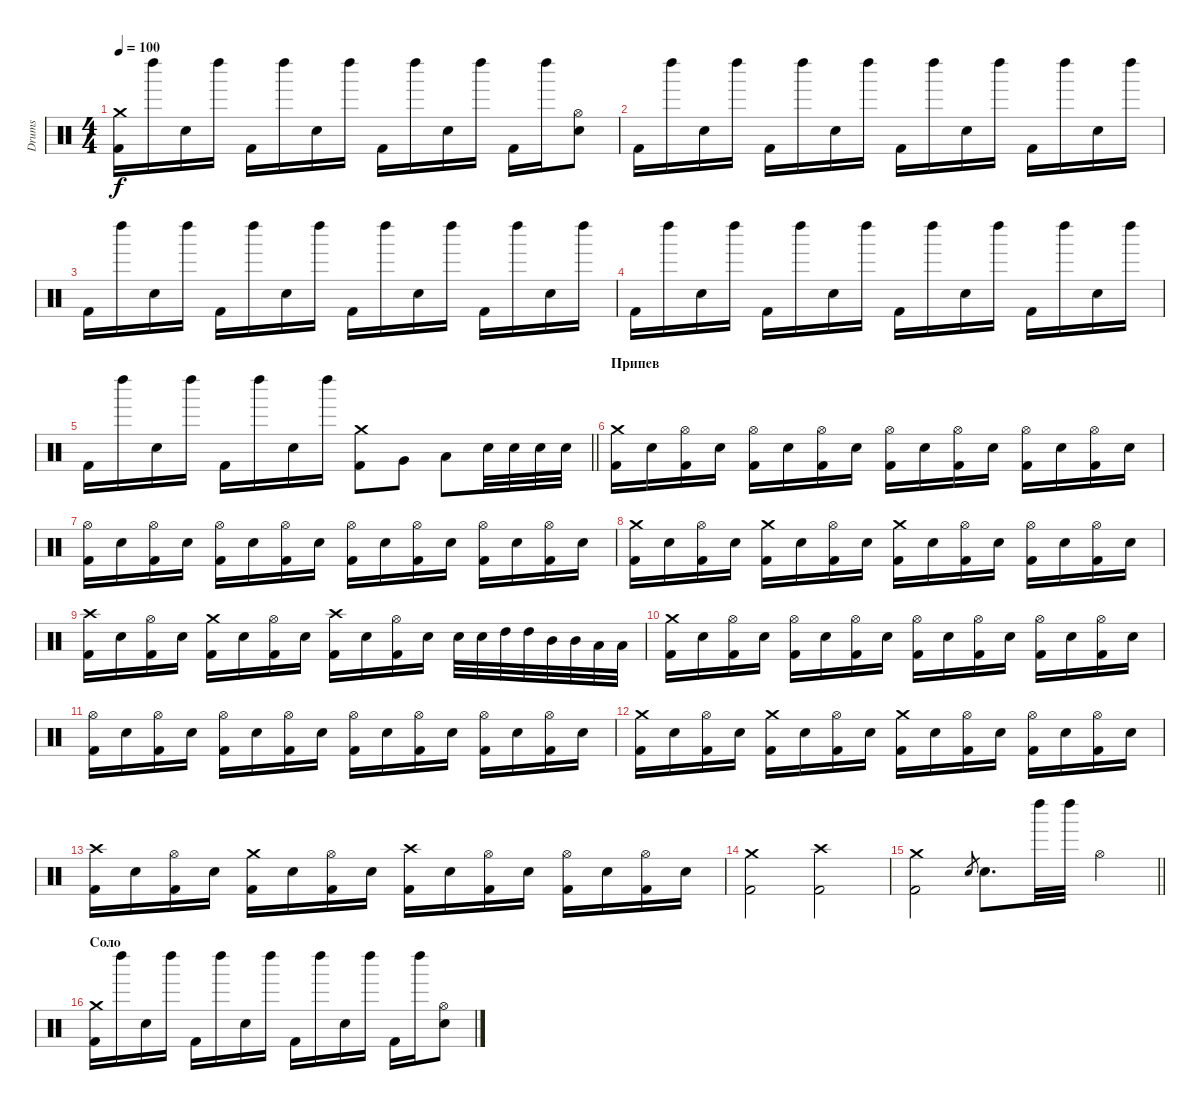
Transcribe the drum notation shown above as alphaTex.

\track ("Drums" "Drums") {instrument percussion}
\staff {score}
\articulation defaults
\ts (4 4)
\tempo 100
\clef neutral
\ks c
("Crash medium (hit)" "Kick (hit) 2").16{dy f} "Left Maraca (hit)".16 "Snare (hit) 2".16 "Left Maraca (hit)".16 "Kick (hit) 2".16 "Left Maraca (hit)".16 "Snare (hit) 2".16 "Left Maraca (hit)".16 "Kick (hit) 2".16 "Left Maraca (hit)".16 "Snare (hit) 2".16 "Left Maraca (hit)".16 "Kick (hit) 2".16 "Left Maraca (hit)".16 ("Hi-Hat (open)" "Snare (hit) 2").8 |
"Kick (hit) 2".16 "Left Maraca (hit)".16 "Snare (hit) 2".16 "Left Maraca (hit)".16 "Kick (hit) 2".16 "Left Maraca (hit)".16 "Snare (hit) 2".16 "Left Maraca (hit)".16 "Kick (hit) 2".16 "Left Maraca (hit)".16 "Snare (hit) 2".16 "Left Maraca (hit)".16 "Kick (hit) 2".16 "Left Maraca (hit)".16 "Snare (hit) 2".16 "Left Maraca (hit)".16 |
"Kick (hit) 2".16 "Left Maraca (hit)".16 "Snare (hit) 2".16 "Left Maraca (hit)".16 "Kick (hit) 2".16 "Left Maraca (hit)".16 "Snare (hit) 2".16 "Left Maraca (hit)".16 "Kick (hit) 2".16 "Left Maraca (hit)".16 "Snare (hit) 2".16 "Left Maraca (hit)".16 "Kick (hit) 2".16 "Left Maraca (hit)".16 "Snare (hit) 2".16 "Left Maraca (hit)".16 |
"Kick (hit) 2".16 "Left Maraca (hit)".16 "Snare (hit) 2".16 "Left Maraca (hit)".16 "Kick (hit) 2".16 "Left Maraca (hit)".16 "Snare (hit) 2".16 "Left Maraca (hit)".16 "Kick (hit) 2".16 "Left Maraca (hit)".16 "Snare (hit) 2".16 "Left Maraca (hit)".16 "Kick (hit) 2".16 "Left Maraca (hit)".16 "Snare (hit) 2".16 "Left Maraca (hit)".16 |
\barLineRight lightlight "Kick (hit) 2".16 "Left Maraca (hit)".16 "Snare (hit) 2".16 "Left Maraca (hit)".16 "Kick (hit) 2".16 "Left Maraca (hit)".16 "Snare (hit) 2".16 "Left Maraca (hit)".16
("Crash medium (hit)" "Kick (hit) 2").8 "Very Low Tom (hit)".8 "Low Tom (hit)".8 "Snare (hit) 2".32 "Snare (hit) 2".32 "Snare (hit) 2".32 "Snare (hit) 2".32 |
\section ("" "Припев")
("Crash medium (hit)" "Kick (hit) 2").16 "Snare (hit) 2".16 ("Hi-Hat (open)" "Kick (hit) 2").16 "Snare (hit) 2".16 ("Hi-Hat (open)" "Kick (hit) 2").16 "Snare (hit) 2".16 ("Hi-Hat (open)" "Kick (hit) 2").16 "Snare (hit) 2".16 ("Hi-Hat (open)" "Kick (hit) 2").16 "Snare (hit) 2".16 ("Hi-Hat (open)" "Kick (hit) 2").16 "Snare (hit) 2".16 ("Hi-Hat (open)" "Kick (hit) 2").16 "Snare (hit) 2".16 ("Hi-Hat (open)" "Kick (hit) 2").16 "Snare (hit) 2".16 |
("Hi-Hat (open)" "Kick (hit) 2").16 "Snare (hit) 2".16 ("Hi-Hat (open)" "Kick (hit) 2").16 "Snare (hit) 2".16 ("Hi-Hat (open)" "Kick (hit) 2").16 "Snare (hit) 2".16 ("Hi-Hat (open)" "Kick (hit) 2").16 "Snare (hit) 2".16 ("Hi-Hat (open)" "Kick (hit) 2").16 "Snare (hit) 2".16 ("Hi-Hat (open)" "Kick (hit) 2").16 "Snare (hit) 2".16 ("Hi-Hat (open)" "Kick (hit) 2").16 "Snare (hit) 2".16 ("Hi-Hat (open)" "Kick (hit) 2").16 "Snare (hit) 2".16 |
("Crash medium (hit)" "Kick (hit) 2").16 "Snare (hit) 2".16 ("Hi-Hat (open)" "Kick (hit) 2").16 "Snare (hit) 2".16 ("Crash medium (hit)" "Kick (hit) 2").16 "Snare (hit) 2".16 ("Hi-Hat (open)" "Kick (hit) 2").16 "Snare (hit) 2".16 ("Crash medium (hit)" "Kick (hit) 2").16 "Snare (hit) 2".16 ("Hi-Hat (open)" "Kick (hit) 2").16 "Snare (hit) 2".16 ("Hi-Hat (open)" "Kick (hit) 2").16 "Snare (hit) 2".16 ("Hi-Hat (open)" "Kick (hit) 2").16 "Snare (hit) 2".16 |
("Crash high (hit)" "Kick (hit) 2").16 "Snare (hit) 2".16 ("Hi-Hat (open)" "Kick (hit) 2").16 "Snare (hit) 2".16 ("Crash medium (hit)" "Kick (hit) 2").16 "Snare (hit) 2".16 ("Hi-Hat (open)" "Kick (hit) 2").16 "Snare (hit) 2".16 ("Crash high (hit)" "Kick (hit) 2").16 "Snare (hit) 2".16 ("Hi-Hat (open)" "Kick (hit) 2").16 "Snare (hit) 2".16 "Snare (hit) 2".32 "Snare (hit) 2".32 "High Tom (hit)".32 "High Tom (hit)".32 "Mid Tom (hit)".32 "Mid Tom (hit)".32 "Low Tom (hit)".32 "Low Tom (hit)".32 |
("Crash medium (hit)" "Kick (hit) 2").16 "Snare (hit) 2".16 ("Hi-Hat (open)" "Kick (hit) 2").16 "Snare (hit) 2".16 ("Hi-Hat (open)" "Kick (hit) 2").16 "Snare (hit) 2".16 ("Hi-Hat (open)" "Kick (hit) 2").16 "Snare (hit) 2".16 ("Hi-Hat (open)" "Kick (hit) 2").16 "Snare (hit) 2".16 ("Hi-Hat (open)" "Kick (hit) 2").16 "Snare (hit) 2".16 ("Hi-Hat (open)" "Kick (hit) 2").16 "Snare (hit) 2".16 ("Hi-Hat (open)" "Kick (hit) 2").16 "Snare (hit) 2".16 |
("Hi-Hat (open)" "Kick (hit) 2").16 "Snare (hit) 2".16 ("Hi-Hat (open)" "Kick (hit) 2").16 "Snare (hit) 2".16 ("Hi-Hat (open)" "Kick (hit) 2").16 "Snare (hit) 2".16 ("Hi-Hat (open)" "Kick (hit) 2").16 "Snare (hit) 2".16 ("Hi-Hat (open)" "Kick (hit) 2").16 "Snare (hit) 2".16 ("Hi-Hat (open)" "Kick (hit) 2").16 "Snare (hit) 2".16 ("Hi-Hat (open)" "Kick (hit) 2").16 "Snare (hit) 2".16 ("Hi-Hat (open)" "Kick (hit) 2").16 "Snare (hit) 2".16 |
("Crash medium (hit)" "Kick (hit) 2").16 "Snare (hit) 2".16 ("Hi-Hat (open)" "Kick (hit) 2").16 "Snare (hit) 2".16 ("Crash medium (hit)" "Kick (hit) 2").16 "Snare (hit) 2".16 ("Hi-Hat (open)" "Kick (hit) 2").16 "Snare (hit) 2".16 ("Crash medium (hit)" "Kick (hit) 2").16 "Snare (hit) 2".16 ("Hi-Hat (open)" "Kick (hit) 2").16 "Snare (hit) 2".16 ("Hi-Hat (open)" "Kick (hit) 2").16 "Snare (hit) 2".16 ("Hi-Hat (open)" "Kick (hit) 2").16 "Snare (hit) 2".16 |
("Crash high (hit)" "Kick (hit) 2").16 "Snare (hit) 2".16 ("Hi-Hat (open)" "Kick (hit) 2").16 "Snare (hit) 2".16 ("Crash medium (hit)" "Kick (hit) 2").16 "Snare (hit) 2".16 ("Hi-Hat (open)" "Kick (hit) 2").16 "Snare (hit) 2".16 ("Crash high (hit)" "Kick (hit) 2").16 "Snare (hit) 2".16 ("Hi-Hat (open)" "Kick (hit) 2").16 "Snare (hit) 2".16 ("Hi-Hat (open)" "Kick (hit) 2").16 "Snare (hit) 2".16 ("Hi-Hat (open)" "Kick (hit) 2").16 "Snare (hit) 2".16 |
("Crash medium (hit)" "Kick (hit) 2").2 ("Crash high (hit)" "Kick (hit) 2").2 |
\barLineRight lightlight
("Crash medium (hit)" "Kick (hit) 2").2 "Snare (hit) 2".8{gr} "Snare (hit) 2".8{d} "Left Maraca (hit)".32 "Left Maraca (hit)".32 "Hi-Hat (open)".4 |
\section ("" "Соло")
("Crash medium (hit)" "Kick (hit) 2").16 "Left Maraca (hit)".16 "Snare (hit) 2".16 "Left Maraca (hit)".16 "Kick (hit) 2".16 "Left Maraca (hit)".16 "Snare (hit) 2".16 "Left Maraca (hit)".16 "Kick (hit) 2".16 "Left Maraca (hit)".16 "Snare (hit) 2".16 "Left Maraca (hit)".16 "Kick (hit) 2".16 "Left Maraca (hit)".16 ("Hi-Hat (open)" "Snare (hit) 2").8
